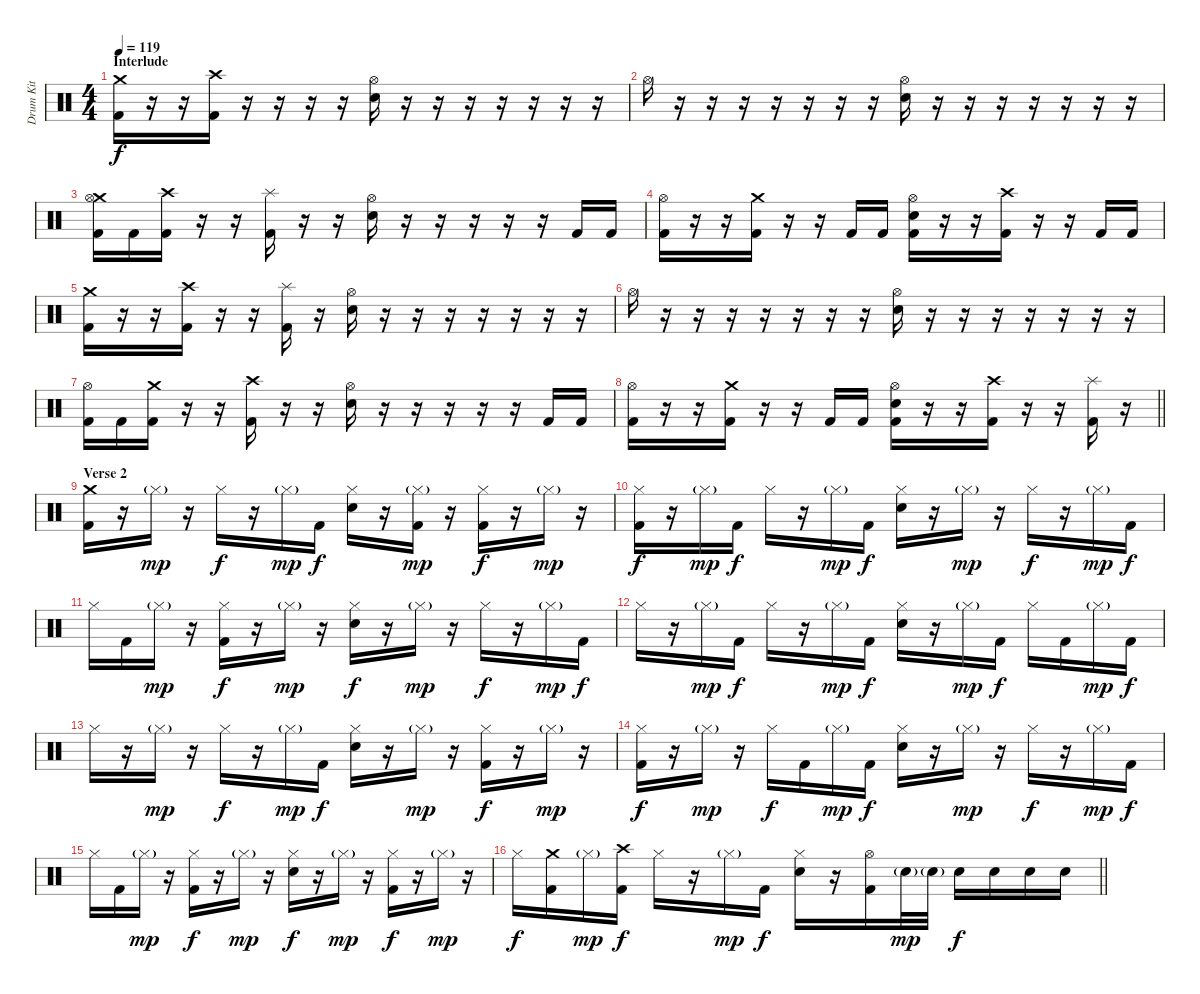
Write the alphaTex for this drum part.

\track ("Drum Kit" "Drum Kit") {instrument percussion}
\staff {score}
\articulation defaults
\ts (4 4)
\section ("" "Interlude")
\tempo 119
\clef neutral
\ks c
("Crash medium (hit)" "Kick (hit) 2").16{dy f} r.16 r.16 ("Crash high (hit)" "Kick (hit) 2").16 r.16 r.16 r.16 r.16 ("Hi-Hat (open)" "Electric Snare (hit)").16 r.16 r.16 r.16 r.16 r.16 r.16 r.16 |
"Hi-Hat (open)".16 r.16 r.16 r.16 r.16 r.16 r.16 r.16 ("Hi-Hat (open)" "Electric Snare (hit)").16 r.16 r.16 r.16 r.16 r.16 r.16 r.16 |
("Crash medium (hit)" "Hi-Hat (open)" "Kick (hit) 2").16 "Kick (hit) 2".16 ("Crash high (hit)" "Kick (hit) 2").16 r.16 r.16 ("Splash (hit)" "Kick (hit) 2").16 r.16 r.16 ("Hi-Hat (open)" "Electric Snare (hit)").16 r.16 r.16 r.16 r.16 r.16 "Kick (hit) 2".16 "Kick (hit) 2".16 |
("Hi-Hat (open)" "Kick (hit) 2").16 r.16 r.16 ("Crash medium (hit)" "Kick (hit) 2").16 r.16 r.16 "Kick (hit) 2".16 "Kick (hit) 2".16 ("Hi-Hat (open)" "Electric Snare (hit)" "Kick (hit) 2").16 r.16 r.16 ("Crash high (hit)" "Kick (hit) 2").16 r.16 r.16 "Kick (hit) 2".16 "Kick (hit) 2".16 |
("Crash medium (hit)" "Kick (hit) 2").16 r.16 r.16 ("Crash high (hit)" "Kick (hit) 2").16 r.16 r.16 ("Splash (hit)" "Kick (hit) 2").16 r.16 ("Hi-Hat (open)" "Electric Snare (hit)").16 r.16 r.16 r.16 r.16 r.16 r.16 r.16 |
"Hi-Hat (open)".16 r.16 r.16 r.16 r.16 r.16 r.16 r.16 ("Hi-Hat (open)" "Electric Snare (hit)").16 r.16 r.16 r.16 r.16 r.16 r.16 r.16 |
("Hi-Hat (open)" "Kick (hit) 2").16 "Kick (hit) 2".16 ("Crash medium (hit)" "Kick (hit) 2").16 r.16 r.16 ("Crash high (hit)" "Kick (hit) 2").16 r.16 r.16 ("Hi-Hat (open)" "Electric Snare (hit)").16 r.16 r.16 r.16 r.16 r.16 "Kick (hit) 2".16 "Kick (hit) 2".16 |
\barLineRight lightlight
("Hi-Hat (open)" "Kick (hit) 2").16 r.16 r.16 ("Crash medium (hit)" "Kick (hit) 2").16 r.16 r.16 "Kick (hit) 2".16 "Kick (hit) 2".16 ("Hi-Hat (open)" "Electric Snare (hit)" "Kick (hit) 2").16 r.16 r.16 ("Crash high (hit)" "Kick (hit) 2").16 r.16 r.16 ("Splash (hit)" "Kick (hit) 2").16 r.16 |
\section ("" "Verse 2")
("Crash medium (hit)" "Kick (hit) 2").16 r.16 "Hi-Hat (closed)"{g}.16{dy mp} r.16 "Hi-Hat (closed)".16{dy f} r.16 "Hi-Hat (closed)"{g}.16{dy mp} "Kick (hit) 2".16{dy f} ("Hi-Hat (closed)" "Electric Snare (hit)").16 r.16 ("Hi-Hat (closed)"{g} "Kick (hit) 2").16{dy mp} r.16 ("Hi-Hat (closed)" "Kick (hit) 2").16{dy f} r.16 "Hi-Hat (closed)"{g}.16{dy mp} r.16 |
("Hi-Hat (closed)" "Kick (hit) 2").16{dy f} r.16 "Hi-Hat (closed)"{g}.16{dy mp} "Kick (hit) 2".16{dy f} "Hi-Hat (closed)".16 r.16 "Hi-Hat (closed)"{g}.16{dy mp} "Kick (hit) 2".16{dy f} ("Hi-Hat (closed)" "Electric Snare (hit)").16 r.16 "Hi-Hat (closed)"{g}.16{dy mp} r.16 "Hi-Hat (closed)".16{dy f} r.16 "Hi-Hat (closed)"{g}.16{dy mp} "Kick (hit) 2".16{dy f} |
"Hi-Hat (closed)".16 "Kick (hit) 2".16 "Hi-Hat (closed)"{g}.16{dy mp} r.16 ("Hi-Hat (closed)" "Kick (hit) 2").16{dy f} r.16 "Hi-Hat (closed)"{g}.16{dy mp} r.16 ("Hi-Hat (closed)" "Electric Snare (hit)").16{dy f} r.16 "Hi-Hat (closed)"{g}.16{dy mp} r.16 "Hi-Hat (closed)".16{dy f} r.16 "Hi-Hat (closed)"{g}.16{dy mp} "Kick (hit) 2".16{dy f} |
"Hi-Hat (closed)".16 r.16 "Hi-Hat (closed)"{g}.16{dy mp} "Kick (hit) 2".16{dy f} "Hi-Hat (closed)".16 r.16 "Hi-Hat (closed)"{g}.16{dy mp} "Kick (hit) 2".16{dy f} ("Hi-Hat (closed)" "Electric Snare (hit)").16 r.16 "Hi-Hat (closed)"{g}.16{dy mp} "Kick (hit) 2".16{dy f} "Hi-Hat (closed)".16 "Kick (hit) 2".16 "Hi-Hat (closed)"{g}.16{dy mp} "Kick (hit) 2".16{dy f} |
"Hi-Hat (closed)".16 r.16 "Hi-Hat (closed)"{g}.16{dy mp} r.16 "Hi-Hat (closed)".16{dy f} r.16 "Hi-Hat (closed)"{g}.16{dy mp} "Kick (hit) 2".16{dy f} ("Hi-Hat (closed)" "Electric Snare (hit)").16 r.16 "Hi-Hat (closed)"{g}.16{dy mp} r.16 ("Hi-Hat (closed)" "Kick (hit) 2").16{dy f} r.16 "Hi-Hat (closed)"{g}.16{dy mp} r.16 |
("Hi-Hat (closed)" "Kick (hit) 2").16{dy f} r.16 "Hi-Hat (closed)"{g}.16{dy mp} r.16 "Hi-Hat (closed)".16{dy f} "Kick (hit) 2".16 "Hi-Hat (closed)"{g}.16{dy mp} "Kick (hit) 2".16{dy f} ("Hi-Hat (closed)" "Electric Snare (hit)").16 r.16 "Hi-Hat (closed)"{g}.16{dy mp} r.16 "Hi-Hat (closed)".16{dy f} r.16 "Hi-Hat (closed)"{g}.16{dy mp} "Kick (hit) 2".16{dy f} |
"Hi-Hat (closed)".16 "Kick (hit) 2".16 "Hi-Hat (closed)"{g}.16{dy mp} r.16 ("Hi-Hat (closed)" "Kick (hit) 2").16{dy f} r.16 "Hi-Hat (closed)"{g}.16{dy mp} r.16 ("Hi-Hat (closed)" "Electric Snare (hit)").16{dy f} r.16 "Hi-Hat (closed)"{g}.16{dy mp} r.16 ("Hi-Hat (closed)" "Kick (hit) 2").16{dy f} r.16 "Hi-Hat (closed)"{g}.16{dy mp} r.16 |
\barLineRight lightlight "Hi-Hat (closed)".16{dy f}
("Crash medium (hit)" "Kick (hit) 2").16 "Hi-Hat (closed)"{g}.16{dy mp} ("Crash high (hit)" "Kick (hit) 2").16{dy f} "Hi-Hat (closed)".16 r.16 "Hi-Hat (closed)"{g}.16{dy mp} "Kick (hit) 2".16{dy f} ("Hi-Hat (closed)" "Electric Snare (hit)").16 r.16 ("Hi-Hat (open)" "Kick (hit) 2").16 "Electric Snare (hit)"{g}.32{dy mp} "Electric Snare (hit)"{g}.32 "Electric Snare (hit)".16{dy f} "Electric Snare (hit)".16 "Electric Snare (hit)".16 "Electric Snare (hit)".16
